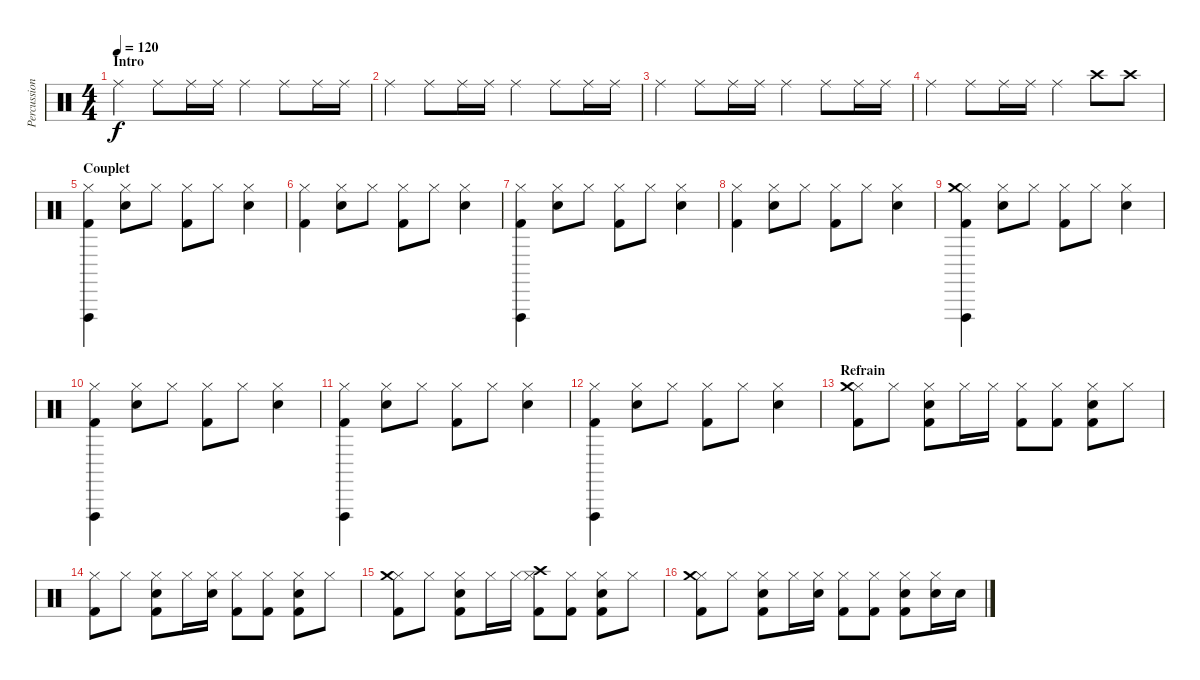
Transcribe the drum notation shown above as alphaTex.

\track ("Percussions" "Percussion") {instrument percussion}
\staff {score}
\articulation defaults
\ts (4 4)
\section ("" "Intro")
\tempo 120
\clef neutral
\ks c "Ride (middle)".4{dy f} "Ride (middle)".8 "Ride (middle)".16 "Ride (middle)".16 "Ride (middle)".4 "Ride (middle)".8 "Ride (middle)".16 "Ride (middle)".16
|
"Ride (middle)".4 "Ride (middle)".8 "Ride (middle)".16 "Ride (middle)".16 "Ride (middle)".4 "Ride (middle)".8 "Ride (middle)".16 "Ride (middle)".16 |
"Ride (middle)".4 "Ride (middle)".8 "Ride (middle)".16 "Ride (middle)".16 "Ride (middle)".4 "Ride (middle)".8 "Ride (middle)".16 "Ride (middle)".16 |
"Ride (middle)".4 "Ride (middle)".8 "Ride (middle)".16 "Ride (middle)".16 "Ride (middle)".4 "Crash high (hit)".8 "Crash high (hit)".8 |
\section ("" "Couplet")
("Hi-Hat (closed)" "Vibraslap (hit)" "Kick (hit) 2").4 ("Hi-Hat (closed)" "Snare (hit) 2").8 "Hi-Hat (closed)".8 ("Hi-Hat (closed)" "Kick (hit) 2").8 "Hi-Hat (closed)".8 ("Hi-Hat (closed)" "Snare (hit) 2").4 |
("Hi-Hat (closed)" "Kick (hit) 2").4 ("Hi-Hat (closed)" "Snare (hit) 2").8 "Hi-Hat (closed)".8 ("Hi-Hat (closed)" "Kick (hit) 2").8 "Hi-Hat (closed)".8 ("Hi-Hat (closed)" "Snare (hit) 2").4 |
("Hi-Hat (closed)" "Vibraslap (hit)" "Kick (hit) 2").4 ("Hi-Hat (closed)" "Snare (hit) 2").8 "Hi-Hat (closed)".8 ("Hi-Hat (closed)" "Kick (hit) 2").8 "Hi-Hat (closed)".8 ("Hi-Hat (closed)" "Snare (hit) 2").4 |
("Hi-Hat (closed)" "Kick (hit) 2").4 ("Hi-Hat (closed)" "Snare (hit) 2").8 "Hi-Hat (closed)".8 ("Hi-Hat (closed)" "Kick (hit) 2").8 "Hi-Hat (closed)".8 ("Hi-Hat (closed)" "Snare (hit) 2").4 |
("Hi-Hat (closed)" "Crash medium (hit)" "Vibraslap (hit)" "Kick (hit) 2").4 ("Hi-Hat (closed)" "Snare (hit) 2").8 "Hi-Hat (closed)".8 ("Hi-Hat (closed)" "Kick (hit) 2").8 "Hi-Hat (closed)".8 ("Hi-Hat (closed)" "Snare (hit) 2").4 |
("Hi-Hat (closed)" "Vibraslap (hit)" "Kick (hit) 2").4 ("Hi-Hat (closed)" "Snare (hit) 2").8 "Hi-Hat (closed)".8 ("Hi-Hat (closed)" "Kick (hit) 2").8 "Hi-Hat (closed)".8 ("Hi-Hat (closed)" "Snare (hit) 2").4 |
("Hi-Hat (closed)" "Vibraslap (hit)" "Kick (hit) 2").4 ("Hi-Hat (closed)" "Snare (hit) 2").8 "Hi-Hat (closed)".8 ("Hi-Hat (closed)" "Kick (hit) 2").8 "Hi-Hat (closed)".8 ("Hi-Hat (closed)" "Snare (hit) 2").4 |
("Hi-Hat (closed)" "Vibraslap (hit)" "Kick (hit) 2").4 ("Hi-Hat (closed)" "Snare (hit) 2").8 "Hi-Hat (closed)".8 ("Hi-Hat (closed)" "Kick (hit) 2").8 "Hi-Hat (closed)".8 ("Hi-Hat (closed)" "Snare (hit) 2").4 |
\section ("" "Refrain")
("Hi-Hat (closed)" "Crash medium (hit)" "Kick (hit) 2").8 "Hi-Hat (closed)".8 ("Hi-Hat (closed)" "Snare (hit) 2" "Kick (hit) 2").8 "Hi-Hat (closed)".16 "Hi-Hat (closed)".16 ("Hi-Hat (closed)" "Kick (hit) 2").8 ("Hi-Hat (closed)" "Kick (hit) 2").8 ("Hi-Hat (closed)" "Snare (hit) 2" "Kick (hit) 2").8 "Hi-Hat (closed)".8 |
("Hi-Hat (closed)" "Kick (hit) 2").8 "Hi-Hat (closed)".8 ("Hi-Hat (closed)" "Snare (hit) 2" "Kick (hit) 2").8 "Hi-Hat (closed)".16 ("Hi-Hat (closed)" "Snare (hit) 2").16 ("Hi-Hat (closed)" "Kick (hit) 2").8 ("Hi-Hat (closed)" "Kick (hit) 2").8 ("Hi-Hat (closed)" "Snare (hit) 2" "Kick (hit) 2").8 "Hi-Hat (closed)".8 |
("Hi-Hat (closed)" "Crash medium (hit)" "Kick (hit) 2").8 "Hi-Hat (closed)".8 ("Hi-Hat (closed)" "Snare (hit) 2" "Kick (hit) 2").8 "Hi-Hat (closed)".16 "Hi-Hat (closed)".16 ("Hi-Hat (closed)" "Crash high (hit)" "Kick (hit) 2").8 ("Hi-Hat (closed)" "Kick (hit) 2").8 ("Hi-Hat (closed)" "Snare (hit) 2" "Kick (hit) 2").8 "Hi-Hat (closed)".8 |
("Hi-Hat (closed)" "Crash medium (hit)" "Kick (hit) 2").8 "Hi-Hat (closed)".8 ("Hi-Hat (closed)" "Snare (hit) 2" "Kick (hit) 2").8 "Hi-Hat (closed)".16 ("Hi-Hat (closed)" "Snare (hit) 2").16 ("Hi-Hat (closed)" "Kick (hit) 2").8 ("Hi-Hat (closed)" "Kick (hit) 2").8 ("Hi-Hat (closed)" "Snare (hit) 2" "Kick (hit) 2").8 ("Hi-Hat (closed)" "Snare (hit) 2").16 "Snare (hit) 2".16
